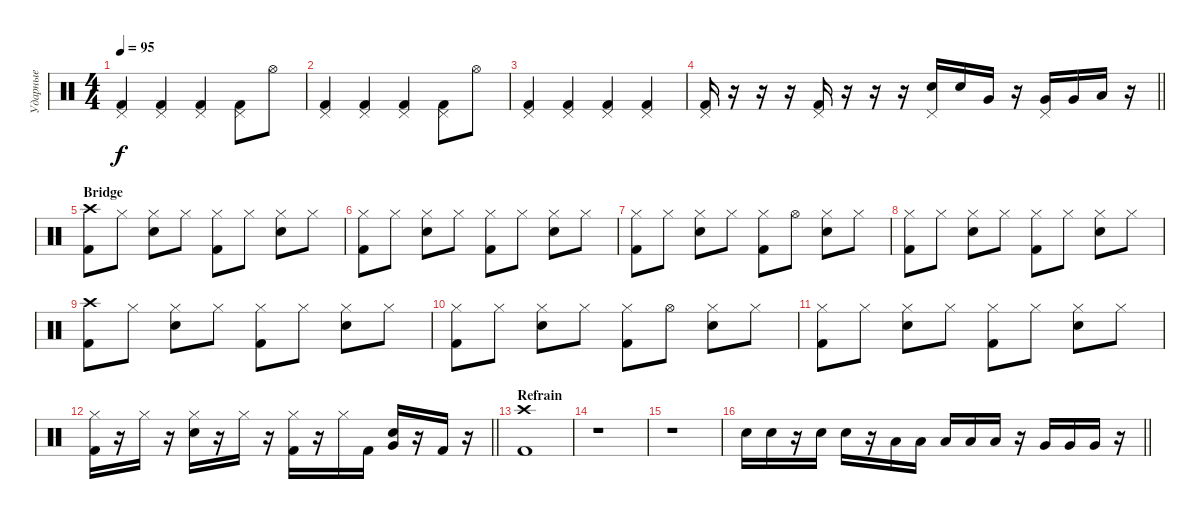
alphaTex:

\track ("Ударные" "Ударные") {instrument percussion}
\staff {score}
\articulation defaults
\ts (4 4)
\tempo 95
\clef neutral
\ks c
("Pedal Hi-Hat (hit)" "Kick (hit) 2").4{dy f} ("Pedal Hi-Hat (hit)" "Kick (hit) 2").4 ("Pedal Hi-Hat (hit)" "Kick (hit) 2").4 ("Pedal Hi-Hat (hit)" "Kick (hit) 2").8 "Hi-Hat (open)".8 |
("Pedal Hi-Hat (hit)" "Kick (hit) 2").4 ("Pedal Hi-Hat (hit)" "Kick (hit) 2").4 ("Pedal Hi-Hat (hit)" "Kick (hit) 2").4 ("Pedal Hi-Hat (hit)" "Kick (hit) 2").8 "Hi-Hat (open)".8 |
("Pedal Hi-Hat (hit)" "Kick (hit) 2").4 ("Pedal Hi-Hat (hit)" "Kick (hit) 2").4 ("Pedal Hi-Hat (hit)" "Kick (hit) 2").4 ("Pedal Hi-Hat (hit)" "Kick (hit) 2").4 |
\barLineRight lightlight
("Pedal Hi-Hat (hit)" "Kick (hit) 2").16 r.16 r.16 r.16 ("Pedal Hi-Hat (hit)" "Kick (hit) 2").16 r.16 r.16 r.16 ("Pedal Hi-Hat (hit)" "Electric Snare (hit)").16 "Electric Snare (hit)".16 "Very Low Tom (hit)".16 r.16 ("Pedal Hi-Hat (hit)" "Very Low Tom (hit)").16 "Very Low Tom (hit)".16 "Low Floor Tom (hit)".16 r.16 |
\section ("" "Bridge")
("Crash high (hit)" "Kick (hit) 2").8 "Hi-Hat (closed)".8 ("Hi-Hat (closed)" "Electric Snare (hit)").8 "Hi-Hat (closed)".8 ("Hi-Hat (closed)" "Kick (hit) 2").8 "Hi-Hat (closed)".8 ("Hi-Hat (closed)" "Electric Snare (hit)").8 "Hi-Hat (closed)".8 |
("Hi-Hat (closed)" "Kick (hit) 2").8 "Hi-Hat (closed)".8 ("Hi-Hat (closed)" "Electric Snare (hit)").8 "Hi-Hat (closed)".8 ("Hi-Hat (closed)" "Kick (hit) 2").8 "Hi-Hat (closed)".8 ("Hi-Hat (closed)" "Electric Snare (hit)").8 "Hi-Hat (closed)".8 |
("Hi-Hat (closed)" "Kick (hit) 2").8 "Hi-Hat (closed)".8 ("Hi-Hat (closed)" "Electric Snare (hit)").8 "Hi-Hat (closed)".8 ("Hi-Hat (closed)" "Kick (hit) 2").8 "Hi-Hat (open)".8 ("Hi-Hat (closed)" "Electric Snare (hit)").8 "Hi-Hat (closed)".8 |
("Hi-Hat (closed)" "Kick (hit) 2").8 "Hi-Hat (closed)".8 ("Hi-Hat (closed)" "Electric Snare (hit)").8 "Hi-Hat (closed)".8 ("Hi-Hat (closed)" "Kick (hit) 2").8 "Hi-Hat (closed)".8 ("Hi-Hat (closed)" "Electric Snare (hit)").8 "Hi-Hat (closed)".8 |
("Crash high (hit)" "Kick (hit) 2").8 "Hi-Hat (closed)".8 ("Hi-Hat (closed)" "Electric Snare (hit)").8 "Hi-Hat (closed)".8 ("Hi-Hat (closed)" "Kick (hit) 2").8 "Hi-Hat (closed)".8 ("Hi-Hat (closed)" "Electric Snare (hit)").8 "Hi-Hat (closed)".8 |
("Hi-Hat (closed)" "Kick (hit) 2").8 "Hi-Hat (closed)".8 ("Hi-Hat (closed)" "Electric Snare (hit)").8 "Hi-Hat (closed)".8 ("Hi-Hat (closed)" "Kick (hit) 2").8 "Hi-Hat (open)".8 ("Hi-Hat (closed)" "Electric Snare (hit)").8 "Hi-Hat (closed)".8 |
("Hi-Hat (closed)" "Kick (hit) 2").8 "Hi-Hat (closed)".8 ("Hi-Hat (closed)" "Electric Snare (hit)").8 "Hi-Hat (closed)".8 ("Hi-Hat (closed)" "Kick (hit) 2").8 "Hi-Hat (closed)".8 ("Hi-Hat (closed)" "Electric Snare (hit)").8 "Hi-Hat (closed)".8 |
\barLineRight lightlight
("Hi-Hat (closed)" "Kick (hit) 2").16 r.16 "Hi-Hat (closed)".16 r.16 ("Hi-Hat (closed)" "Electric Snare (hit)").16 r.16 "Hi-Hat (closed)".16 r.16 ("Hi-Hat (closed)" "Kick (hit) 2").16 r.16 "Hi-Hat (closed)".16 "Kick (hit) 2".16 ("Very Low Tom (hit)" "Electric Snare (hit)").16 r.16 "Kick (hit) 2".16 r.16 |
\section ("" "Refrain")
("Crash high (hit)" "Kick (hit) 2").1 |
r.1 |
r.1 |
\barLineRight lightlight "Electric Snare (hit)".16 "Electric Snare (hit)".16
r.16 "Electric Snare (hit)".16 "Electric Snare (hit)".16 r.16 "Low Tom (hit)".16 "Low Tom (hit)".16 "Low Tom (hit)".16 "Low Tom (hit)".16 "Low Tom (hit)".16 r.16 "Very Low Tom (hit)".16 "Very Low Tom (hit)".16 "Very Low Tom (hit)".16 r.16
